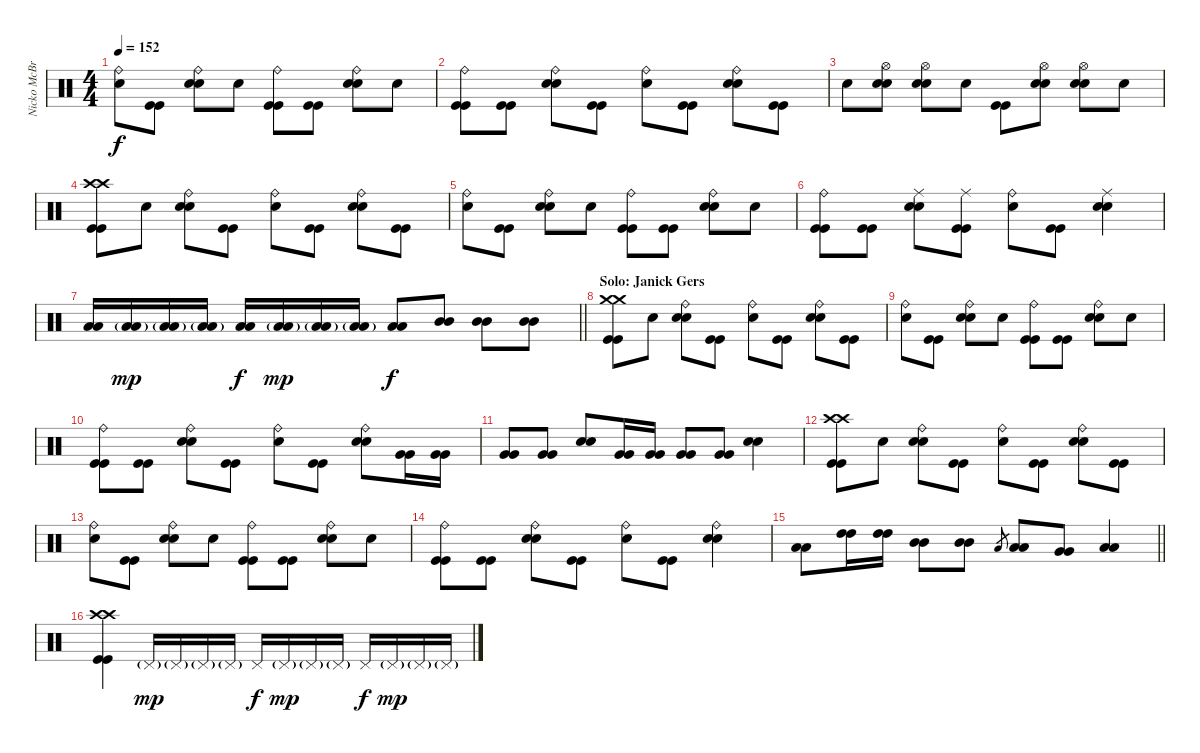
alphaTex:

\track ("Nicko McBrain" "Nicko McBr") {instrument percussion}
\staff {score}
\articulation defaults
\ts (4 4)
\tempo 152
\clef neutral
\ks c
("Ride (bell)" "Snare (hit)").8{dy f} ("Kick (hit)" "Kick (hit)").8 ("Ride (bell)" "Electric Snare (hit)" "Electric Snare (hit)").8 "Snare (hit)".8 ("Ride (bell)" "Kick (hit)" "Kick (hit)").8 ("Kick (hit)" "Kick (hit)").8 ("Ride (bell)" "Electric Snare (hit)" "Electric Snare (hit)").8 "Snare (hit)".8 |
("Ride (bell)" "Kick (hit)" "Kick (hit)").8 ("Kick (hit)" "Kick (hit)").8 ("Ride (bell)" "Electric Snare (hit)" "Electric Snare (hit)").8 ("Kick (hit)" "Kick (hit)").8 ("Ride (bell)" "Snare (hit)").8 ("Kick (hit)" "Kick (hit)").8 ("Ride (bell)" "Electric Snare (hit)" "Electric Snare (hit)").8 ("Kick (hit)" "Kick (hit)").8 |
"Snare (hit)".8 ("Hi-Hat (open)" "Electric Snare (hit)" "Electric Snare (hit)").8 ("Hi-Hat (open)" "Electric Snare (hit)" "Electric Snare (hit)").8 "Snare (hit)".8 ("Kick (hit)" "Kick (hit)").8 ("Hi-Hat (open)" "Electric Snare (hit)" "Electric Snare (hit)").8 ("Hi-Hat (open)" "Electric Snare (hit)" "Electric Snare (hit)").8 "Snare (hit)".8 |
("Crash high (hit)" "Crash high (hit)" "Kick (hit)" "Kick (hit)").8 "Snare (hit)".8 ("Ride (bell)" "Electric Snare (hit)" "Electric Snare (hit)").8 ("Kick (hit)" "Kick (hit)").8 ("Ride (bell)" "Snare (hit)").8 ("Kick (hit)" "Kick (hit)").8 ("Ride (bell)" "Electric Snare (hit)" "Electric Snare (hit)").8 ("Kick (hit)" "Kick (hit)").8 |
("Ride (bell)" "Snare (hit)").8 ("Kick (hit)" "Kick (hit)").8 ("Ride (bell)" "Electric Snare (hit)" "Electric Snare (hit)").8 "Snare (hit)".8 ("Ride (bell)" "Kick (hit)" "Kick (hit)").8 ("Kick (hit)" "Kick (hit)").8 ("Ride (bell)" "Electric Snare (hit)" "Electric Snare (hit)").8 "Snare (hit)".8 |
("Ride (bell)" "Kick (hit)" "Kick (hit)").8 ("Kick (hit)" "Kick (hit)").8 ("Ride (middle)" "Electric Snare (hit)" "Electric Snare (hit)").8 ("Ride (middle)" "Kick (hit)" "Kick (hit)").8 ("Ride (bell)" "Snare (hit)").8 ("Kick (hit)" "Kick (hit)").8 ("Ride (middle)" "Electric Snare (hit)" "Electric Snare (hit)").4 |
\barLineRight lightlight
("Low Tom (hit)" "Low Tom (hit)").16 ("Low Tom (hit)"{g} "Low Tom (hit)"{g}).16{dy mp} ("Low Tom (hit)"{g} "Low Tom (hit)"{g}).16 ("Low Tom (hit)"{g} "Low Tom (hit)"{g}).16 ("Low Tom (hit)" "Low Tom (hit)").16{dy f} ("Low Tom (hit)"{g} "Low Tom (hit)"{g}).16{dy mp} ("Low Tom (hit)"{g} "Low Tom (hit)"{g}).16 ("Low Tom (hit)"{g} "Low Tom (hit)"{g}).16 ("Low Tom (hit)" "Low Tom (hit)").8{dy f} ("Mid Tom (hit)" "Mid Tom (hit)").8 ("Mid Tom (hit)" "Mid Tom (hit)").8 ("Mid Tom (hit)" "Mid Tom (hit)").8 |
\section ("" "Solo: Janick Gers")
("Crash medium (hit)" "Crash medium (hit)" "Kick (hit)" "Kick (hit)").8 "Snare (hit)".8 ("Ride (bell)" "Electric Snare (hit)" "Electric Snare (hit)").8 ("Kick (hit)" "Kick (hit)").8 ("Ride (bell)" "Snare (hit)").8 ("Kick (hit)" "Kick (hit)").8 ("Ride (bell)" "Electric Snare (hit)" "Electric Snare (hit)").8 ("Kick (hit)" "Kick (hit)").8 |
("Ride (bell)" "Snare (hit)").8 ("Kick (hit)" "Kick (hit)").8 ("Ride (bell)" "Electric Snare (hit)" "Electric Snare (hit)").8 "Snare (hit)".8 ("Ride (bell)" "Kick (hit)" "Kick (hit)").8 ("Kick (hit)" "Kick (hit)").8 ("Ride (bell)" "Electric Snare (hit)" "Electric Snare (hit)").8 "Snare (hit)".8 |
("Ride (bell)" "Kick (hit)" "Kick (hit)").8 ("Kick (hit)" "Kick (hit)").8 ("Ride (bell)" "Electric Snare (hit)" "Electric Snare (hit)").8 ("Kick (hit)" "Kick (hit)").8 ("Ride (bell)" "Snare (hit)").8 ("Kick (hit)" "Kick (hit)").8 ("Ride (bell)" "Electric Snare (hit)" "Electric Snare (hit)").8 ("Very Low Tom (hit)" "Very Low Tom (hit)").16 ("Very Low Tom (hit)" "Very Low Tom (hit)").16 |
("Very Low Tom (hit)" "Very Low Tom (hit)").8 ("Very Low Tom (hit)" "Very Low Tom (hit)").8 ("Electric Snare (hit)" "Electric Snare (hit)").8 ("Very Low Tom (hit)" "Very Low Tom (hit)").16 ("Very Low Tom (hit)" "Very Low Tom (hit)").16 ("Very Low Tom (hit)" "Very Low Tom (hit)").8 ("Very Low Tom (hit)" "Very Low Tom (hit)").8 ("Electric Snare (hit)" "Electric Snare (hit)").4 |
("Crash high (hit)" "Crash high (hit)" "Kick (hit)" "Kick (hit)").8 "Snare (hit)".8 ("Ride (bell)" "Electric Snare (hit)" "Electric Snare (hit)").8 ("Kick (hit)" "Kick (hit)").8 ("Ride (bell)" "Snare (hit)").8 ("Kick (hit)" "Kick (hit)").8 ("Ride (bell)" "Electric Snare (hit)" "Electric Snare (hit)").8 ("Kick (hit)" "Kick (hit)").8 |
("Ride (bell)" "Snare (hit)").8 ("Kick (hit)" "Kick (hit)").8 ("Ride (bell)" "Electric Snare (hit)" "Electric Snare (hit)").8 "Snare (hit)".8 ("Ride (bell)" "Kick (hit)" "Kick (hit)").8 ("Kick (hit)" "Kick (hit)").8 ("Ride (bell)" "Electric Snare (hit)" "Electric Snare (hit)").8 "Snare (hit)".8 |
("Ride (bell)" "Kick (hit)" "Kick (hit)").8 ("Kick (hit)" "Kick (hit)").8 ("Ride (bell)" "Electric Snare (hit)" "Electric Snare (hit)").8 ("Kick (hit)" "Kick (hit)").8 ("Ride (bell)" "Snare (hit)").8 ("Kick (hit)" "Kick (hit)").8 ("Ride (bell)" "Electric Snare (hit)" "Electric Snare (hit)").4 |
\barLineRight lightlight
("Low Tom (hit)" "Low Tom (hit)").8 ("High Tom (hit)" "High Tom (hit)").16 ("High Tom (hit)" "High Tom (hit)").16 ("Mid Tom (hit)" "Mid Tom (hit)").8 ("Mid Tom (hit)" "Mid Tom (hit)").8 "Low Tom (hit)".8{gr} ("Low Tom (hit)" "Low Tom (hit)").8 ("Very Low Tom (hit)" "Very Low Tom (hit)").8 ("Low Floor Tom (hit)" "Low Floor Tom (hit)").4 |
("Crash high (hit)" "Crash high (hit)" "Kick (hit)" "Kick (hit)").4 "Pedal Hi-Hat (hit)"{g}.16{dy mp} "Pedal Hi-Hat (hit)"{g}.16 "Pedal Hi-Hat (hit)"{g}.16 "Pedal Hi-Hat (hit)"{g}.16 "Pedal Hi-Hat (hit)".16{dy f} "Pedal Hi-Hat (hit)"{g}.16{dy mp} "Pedal Hi-Hat (hit)"{g}.16 "Pedal Hi-Hat (hit)"{g}.16 "Pedal Hi-Hat (hit)".16{dy f} "Pedal Hi-Hat (hit)"{g}.16{dy mp} "Pedal Hi-Hat (hit)"{g}.16 "Pedal Hi-Hat (hit)"{g}.16
